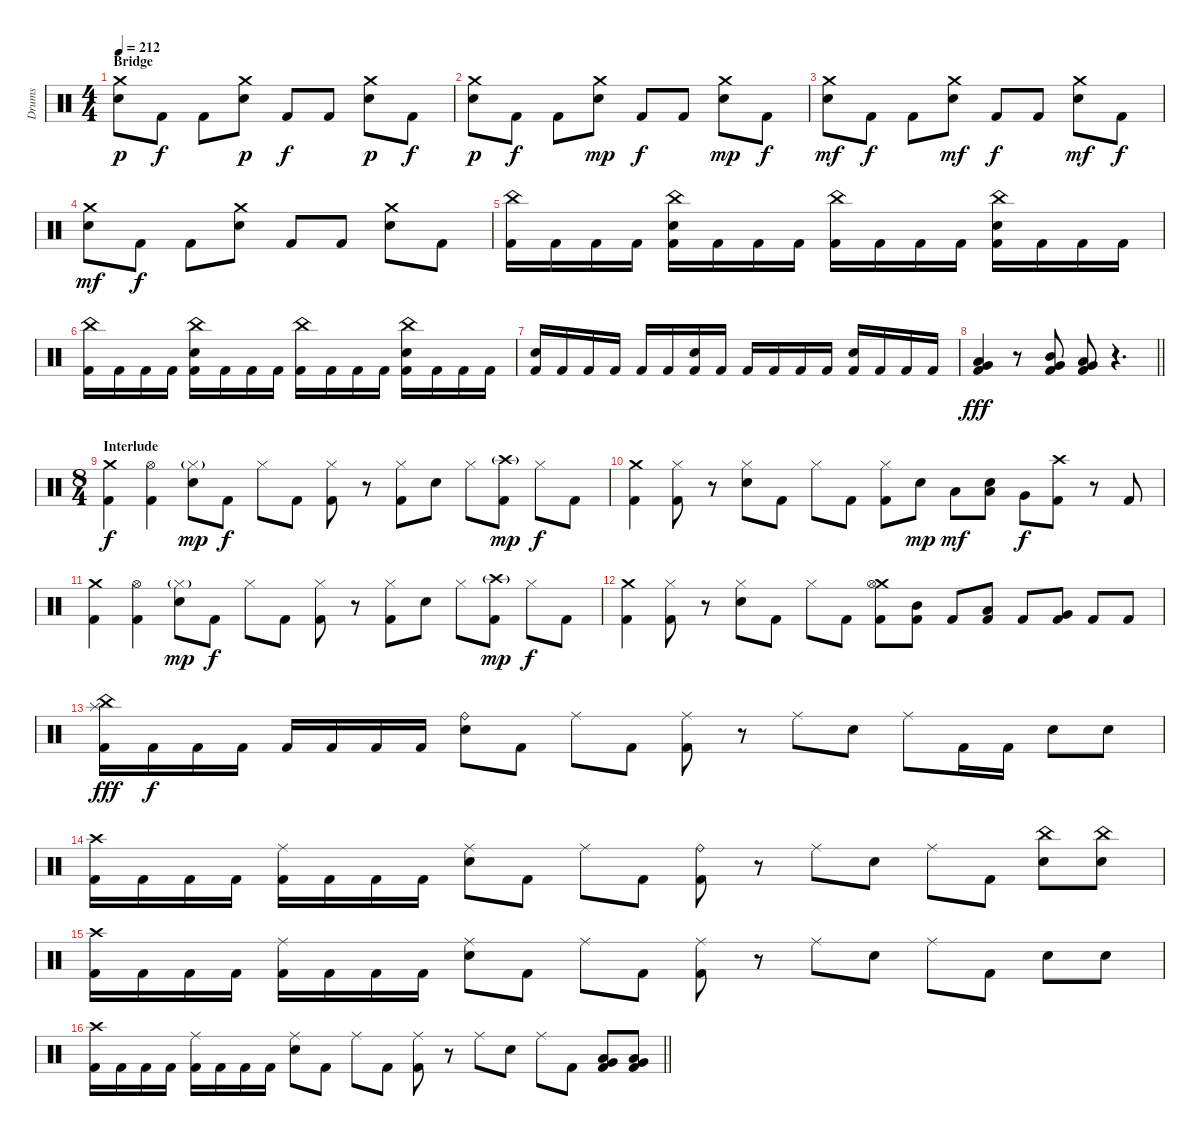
\track ("Drums" "Drums") {instrument percussion}
\staff {score}
\articulation defaults
\ts (4 4)
\section ("" "Bridge")
\tempo 212
\clef neutral
\ks c
("Crash medium (hit)" "Electric Snare (hit)").8{dy p} "Kick (hit) 2".8{dy f} "Kick (hit) 2".8 ("Crash medium (hit)" "Electric Snare (hit)").8{dy p} "Kick (hit) 2".8{dy f} "Kick (hit) 2".8 ("Crash medium (hit)" "Electric Snare (hit)").8{dy p} "Kick (hit) 2".8{dy f} |
("Crash medium (hit)" "Electric Snare (hit)").8{dy p} "Kick (hit) 2".8{dy f} "Kick (hit) 2".8 ("Crash medium (hit)" "Electric Snare (hit)").8{dy mp} "Kick (hit) 2".8{dy f} "Kick (hit) 2".8 ("Crash medium (hit)" "Electric Snare (hit)").8{dy mp} "Kick (hit) 2".8{dy f} |
("Crash medium (hit)" "Electric Snare (hit)").8{dy mf} "Kick (hit) 2".8{dy f} "Kick (hit) 2".8 ("Crash medium (hit)" "Electric Snare (hit)").8{dy mf} "Kick (hit) 2".8{dy f} "Kick (hit) 2".8 ("Crash medium (hit)" "Electric Snare (hit)").8{dy mf} "Kick (hit) 2".8{dy f} |
("Crash medium (hit)" "Electric Snare (hit)").8{dy mf} "Kick (hit) 2".8{dy f} "Kick (hit) 2".8 ("Crash medium (hit)" "Electric Snare (hit)").8 "Kick (hit) 2".8 "Kick (hit) 2".8 ("Crash medium (hit)" "Electric Snare (hit)").8 "Kick (hit) 2".8 |
("China (hit)" "Kick (hit) 2").16 "Kick (hit) 2".16 "Kick (hit) 2".16 "Kick (hit) 2".16 ("China (hit)" "Electric Snare (hit)" "Kick (hit) 2").16 "Kick (hit) 2".16 "Kick (hit) 2".16 "Kick (hit) 2".16 ("China (hit)" "Kick (hit) 2").16 "Kick (hit) 2".16 "Kick (hit) 2".16 "Kick (hit) 2".16 ("China (hit)" "Electric Snare (hit)" "Kick (hit) 2").16 "Kick (hit) 2".16 "Kick (hit) 2".16 "Kick (hit) 2".16 |
("China (hit)" "Kick (hit) 2").16 "Kick (hit) 2".16 "Kick (hit) 2".16 "Kick (hit) 2".16 ("China (hit)" "Electric Snare (hit)" "Kick (hit) 2").16 "Kick (hit) 2".16 "Kick (hit) 2".16 "Kick (hit) 2".16 ("China (hit)" "Kick (hit) 2").16 "Kick (hit) 2".16 "Kick (hit) 2".16 "Kick (hit) 2".16 ("China (hit)" "Electric Snare (hit)" "Kick (hit) 2").16 "Kick (hit) 2".16 "Kick (hit) 2".16 "Kick (hit) 2".16 |
("Electric Snare (hit)" "Kick (hit) 2").16 "Kick (hit) 2".16 "Kick (hit) 2".16 "Kick (hit) 2".16 "Kick (hit) 2".16 "Kick (hit) 2".16 ("Electric Snare (hit)" "Kick (hit) 2").16 "Kick (hit) 2".16 "Kick (hit) 2".16 "Kick (hit) 2".16 "Kick (hit) 2".16 "Kick (hit) 2".16 ("Electric Snare (hit)" "Kick (hit) 2").16 "Kick (hit) 2".16 "Kick (hit) 2".16 "Kick (hit) 2".16 |
\barLineRight lightlight
("Low Tom (hit)" "Very Low Tom (hit)" "Kick (hit) 2").4{dy fff} r.8 ("Mid Tom (hit)" "Very Low Tom (hit)" "Kick (hit) 2").8 ("Low Tom (hit)" "Very Low Tom (hit)" "Kick (hit) 2").8 r.4{d} |
\ts (8 4)
\section ("" "Interlude")
("Crash medium (hit)" "Kick (hit) 2").4{dy f} ("Hi-Hat (open)" "Kick (hit) 2").4 ("Hi-Hat (closed)"{g} "Electric Snare (hit)").8{dy mp} "Kick (hit) 2".8{dy f} "Hi-Hat (closed)".8 "Kick (hit) 2".8 ("Hi-Hat (closed)" "Kick (hit) 2").8 r.8 ("Hi-Hat (closed)" "Kick (hit) 2").8 "Electric Snare (hit)".8 "Hi-Hat (closed)".8 ("Crash high (hit)"{g} "Kick (hit) 2").8{dy mp} "Hi-Hat (closed)".8{dy f} "Kick (hit) 2".8 |
("Crash medium (hit)" "Kick (hit) 2").4 ("Hi-Hat (closed)" "Kick (hit) 2").8 r.8 ("Hi-Hat (closed)" "Electric Snare (hit)").8 "Kick (hit) 2".8 "Hi-Hat (closed)".8 "Kick (hit) 2".8 ("Hi-Hat (closed)" "Kick (hit) 2").8 "Electric Snare (hit)".8{dy mp} "Low Tom (hit)".8{dy mf} ("Low Tom (hit)" "Electric Snare (hit)").8 "Very Low Tom (hit)".8{dy f} ("Crash high (hit)" "Kick (hit) 2").8 r.8 "Kick (hit) 2".8 |
("Crash medium (hit)" "Kick (hit) 2").4 ("Hi-Hat (open)" "Kick (hit) 2").4 ("Hi-Hat (closed)"{g} "Electric Snare (hit)").8{dy mp} "Kick (hit) 2".8{dy f} "Hi-Hat (closed)".8 "Kick (hit) 2".8 ("Hi-Hat (closed)" "Kick (hit) 2").8 r.8 ("Hi-Hat (closed)" "Kick (hit) 2").8 "Electric Snare (hit)".8 "Hi-Hat (closed)".8 ("Crash high (hit)"{g} "Kick (hit) 2").8{dy mp} "Hi-Hat (closed)".8{dy f} "Kick (hit) 2".8 |
("Crash medium (hit)" "Kick (hit) 2").4 ("Hi-Hat (closed)" "Kick (hit) 2").8 r.8 ("Hi-Hat (closed)" "Electric Snare (hit)").8 "Kick (hit) 2".8 "Hi-Hat (closed)".8 "Kick (hit) 2".8 ("Crash medium (hit)" "Hi-Hat (open)" "Kick (hit) 2").8 ("Mid Tom (hit)" "Kick (hit) 2").8 "Kick (hit) 2".8 ("Low Tom (hit)" "Kick (hit) 2").8 "Kick (hit) 2".8 ("Very Low Tom (hit)" "Kick (hit) 2").8 "Kick (hit) 2".8 "Kick (hit) 2".8 |
("China (hit)" "Splash (hit)" "Kick (hit) 2").16{dy fff} "Kick (hit) 2".16{dy f} "Kick (hit) 2".16 "Kick (hit) 2".16 "Kick (hit) 2".16 "Kick (hit) 2".16 "Kick (hit) 2".16 "Kick (hit) 2".16 ("Ride (bell)" "Electric Snare (hit)").8 "Kick (hit) 2".8 "Ride (middle)".8 "Kick (hit) 2".8 ("Ride (middle)" "Kick (hit) 2").8 r.8 "Ride (middle)".8 "Electric Snare (hit)".8 "Ride (middle)".8 "Kick (hit) 2".16 "Kick (hit) 2".16 "Electric Snare (hit)".8 "Electric Snare (hit)".8 |
("Crash high (hit)" "Kick (hit) 2").16 "Kick (hit) 2".16 "Kick (hit) 2".16 "Kick (hit) 2".16 ("Ride (middle)" "Kick (hit) 2").16 "Kick (hit) 2".16 "Kick (hit) 2".16 "Kick (hit) 2".16 ("Ride (middle)" "Electric Snare (hit)").8 "Kick (hit) 2".8 "Ride (middle)".8 "Kick (hit) 2".8 ("Ride (bell)" "Kick (hit) 2").8 r.8 "Ride (middle)".8 "Electric Snare (hit)".8 "Ride (middle)".8 "Kick (hit) 2".8 ("China (hit)" "Electric Snare (hit)").8 ("China (hit)" "Electric Snare (hit)").8 |
("Crash high (hit)" "Kick (hit) 2").16 "Kick (hit) 2".16 "Kick (hit) 2".16 "Kick (hit) 2".16 ("Ride (middle)" "Kick (hit) 2").16 "Kick (hit) 2".16 "Kick (hit) 2".16 "Kick (hit) 2".16 ("Ride (middle)" "Electric Snare (hit)").8 "Kick (hit) 2".8 "Ride (middle)".8 "Kick (hit) 2".8 ("Ride (middle)" "Kick (hit) 2").8 r.8 "Ride (middle)".8 "Electric Snare (hit)".8 "Ride (middle)".8 "Kick (hit) 2".8 "Electric Snare (hit)".8 "Electric Snare (hit)".8 |
\barLineRight lightlight
("Crash high (hit)" "Kick (hit) 2").16 "Kick (hit) 2".16 "Kick (hit) 2".16 "Kick (hit) 2".16 ("Ride (middle)" "Kick (hit) 2").16 "Kick (hit) 2".16 "Kick (hit) 2".16 "Kick (hit) 2".16 ("Ride (middle)" "Electric Snare (hit)").8 "Kick (hit) 2".8 "Ride (middle)".8 "Kick (hit) 2".8 ("Ride (middle)" "Kick (hit) 2").8 r.8 "Ride (middle)".8 "Electric Snare (hit)".8 "Ride (middle)".8 "Kick (hit) 2".8 ("Low Tom (hit)" "Very Low Tom (hit)" "Kick (hit) 2").8 ("Very Low Tom (hit)" "Low Floor Tom (hit)" "Kick (hit) 2").8
